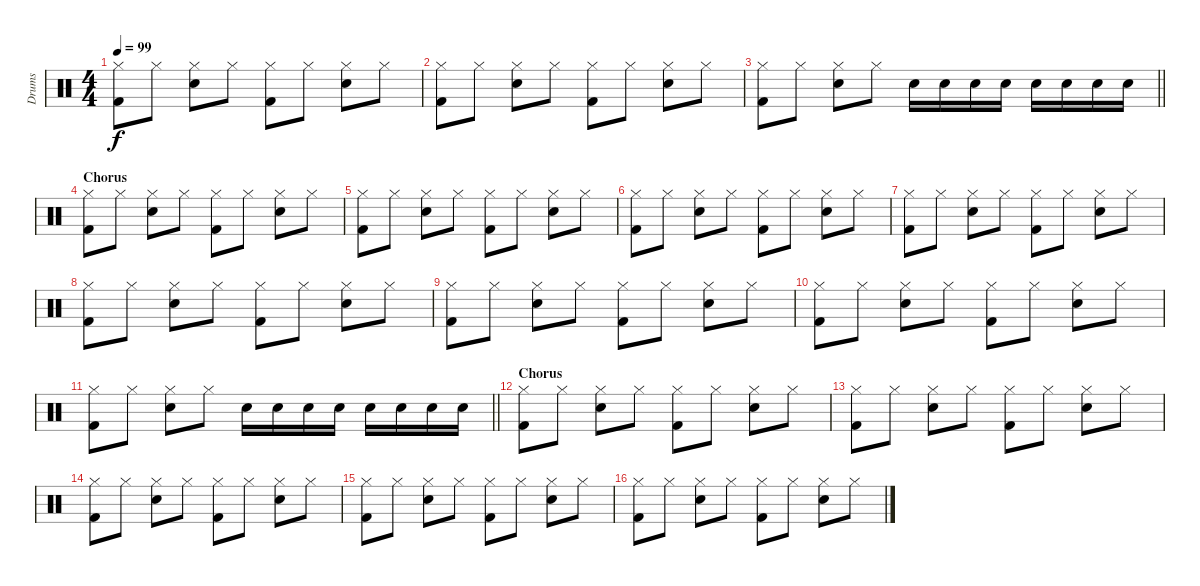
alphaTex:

\track ("Drums" "Drums") {instrument percussion}
\staff {score}
\articulation defaults
\ts (4 4)
\tempo 99
\clef neutral
\ks c
("Hi-Hat (closed)" "Kick (hit) 2").8{dy f} "Hi-Hat (closed)".8 ("Hi-Hat (closed)" "Snare (hit) 2").8 "Hi-Hat (closed)".8 ("Hi-Hat (closed)" "Kick (hit) 2").8 "Hi-Hat (closed)".8 ("Hi-Hat (closed)" "Snare (hit) 2").8 "Hi-Hat (closed)".8 |
("Hi-Hat (closed)" "Kick (hit) 2").8 "Hi-Hat (closed)".8 ("Hi-Hat (closed)" "Snare (hit) 2").8 "Hi-Hat (closed)".8 ("Hi-Hat (closed)" "Kick (hit) 2").8 "Hi-Hat (closed)".8 ("Hi-Hat (closed)" "Snare (hit) 2").8 "Hi-Hat (closed)".8 |
\barLineRight lightlight
("Hi-Hat (closed)" "Kick (hit) 2").8 "Hi-Hat (closed)".8 ("Hi-Hat (closed)" "Snare (hit) 2").8 "Hi-Hat (closed)".8 "Snare (hit) 2".16 "Snare (hit) 2".16 "Snare (hit) 2".16 "Snare (hit) 2".16 "Snare (hit) 2".16 "Snare (hit) 2".16 "Snare (hit) 2".16 "Snare (hit) 2".16 |
\section ("" "Chorus")
("Hi-Hat (closed)" "Kick (hit) 2").8 "Hi-Hat (closed)".8 ("Hi-Hat (closed)" "Snare (hit) 2").8 "Hi-Hat (closed)".8 ("Hi-Hat (closed)" "Kick (hit) 2").8 "Hi-Hat (closed)".8 ("Hi-Hat (closed)" "Snare (hit) 2").8 "Hi-Hat (closed)".8 |
("Hi-Hat (closed)" "Kick (hit) 2").8 "Hi-Hat (closed)".8 ("Hi-Hat (closed)" "Snare (hit) 2").8 "Hi-Hat (closed)".8 ("Hi-Hat (closed)" "Kick (hit) 2").8 "Hi-Hat (closed)".8 ("Hi-Hat (closed)" "Snare (hit) 2").8 "Hi-Hat (closed)".8 |
("Hi-Hat (closed)" "Kick (hit) 2").8 "Hi-Hat (closed)".8 ("Hi-Hat (closed)" "Snare (hit) 2").8 "Hi-Hat (closed)".8 ("Hi-Hat (closed)" "Kick (hit) 2").8 "Hi-Hat (closed)".8 ("Hi-Hat (closed)" "Snare (hit) 2").8 "Hi-Hat (closed)".8 |
("Hi-Hat (closed)" "Kick (hit) 2").8 "Hi-Hat (closed)".8 ("Hi-Hat (closed)" "Snare (hit) 2").8 "Hi-Hat (closed)".8 ("Hi-Hat (closed)" "Kick (hit) 2").8 "Hi-Hat (closed)".8 ("Hi-Hat (closed)" "Snare (hit) 2").8 "Hi-Hat (closed)".8 |
("Hi-Hat (closed)" "Kick (hit) 2").8 "Hi-Hat (closed)".8 ("Hi-Hat (closed)" "Snare (hit) 2").8 "Hi-Hat (closed)".8 ("Hi-Hat (closed)" "Kick (hit) 2").8 "Hi-Hat (closed)".8 ("Hi-Hat (closed)" "Snare (hit) 2").8 "Hi-Hat (closed)".8 |
("Hi-Hat (closed)" "Kick (hit) 2").8 "Hi-Hat (closed)".8 ("Hi-Hat (closed)" "Snare (hit) 2").8 "Hi-Hat (closed)".8 ("Hi-Hat (closed)" "Kick (hit) 2").8 "Hi-Hat (closed)".8 ("Hi-Hat (closed)" "Snare (hit) 2").8 "Hi-Hat (closed)".8 |
("Hi-Hat (closed)" "Kick (hit) 2").8 "Hi-Hat (closed)".8 ("Hi-Hat (closed)" "Snare (hit) 2").8 "Hi-Hat (closed)".8 ("Hi-Hat (closed)" "Kick (hit) 2").8 "Hi-Hat (closed)".8 ("Hi-Hat (closed)" "Snare (hit) 2").8 "Hi-Hat (closed)".8 |
\barLineRight lightlight
("Hi-Hat (closed)" "Kick (hit) 2").8 "Hi-Hat (closed)".8 ("Hi-Hat (closed)" "Snare (hit) 2").8 "Hi-Hat (closed)".8 "Snare (hit) 2".16 "Snare (hit) 2".16 "Snare (hit) 2".16 "Snare (hit) 2".16 "Snare (hit) 2".16 "Snare (hit) 2".16 "Snare (hit) 2".16 "Snare (hit) 2".16 |
\section ("" "Chorus")
("Hi-Hat (closed)" "Kick (hit) 2").8 "Hi-Hat (closed)".8 ("Hi-Hat (closed)" "Snare (hit) 2").8 "Hi-Hat (closed)".8 ("Hi-Hat (closed)" "Kick (hit) 2").8 "Hi-Hat (closed)".8 ("Hi-Hat (closed)" "Snare (hit) 2").8 "Hi-Hat (closed)".8 |
("Hi-Hat (closed)" "Kick (hit) 2").8 "Hi-Hat (closed)".8 ("Hi-Hat (closed)" "Snare (hit) 2").8 "Hi-Hat (closed)".8 ("Hi-Hat (closed)" "Kick (hit) 2").8 "Hi-Hat (closed)".8 ("Hi-Hat (closed)" "Snare (hit) 2").8 "Hi-Hat (closed)".8 |
("Hi-Hat (closed)" "Kick (hit) 2").8 "Hi-Hat (closed)".8 ("Hi-Hat (closed)" "Snare (hit) 2").8 "Hi-Hat (closed)".8 ("Hi-Hat (closed)" "Kick (hit) 2").8 "Hi-Hat (closed)".8 ("Hi-Hat (closed)" "Snare (hit) 2").8 "Hi-Hat (closed)".8 |
("Hi-Hat (closed)" "Kick (hit) 2").8 "Hi-Hat (closed)".8 ("Hi-Hat (closed)" "Snare (hit) 2").8 "Hi-Hat (closed)".8 ("Hi-Hat (closed)" "Kick (hit) 2").8 "Hi-Hat (closed)".8 ("Hi-Hat (closed)" "Snare (hit) 2").8 "Hi-Hat (closed)".8 |
("Hi-Hat (closed)" "Kick (hit) 2").8 "Hi-Hat (closed)".8 ("Hi-Hat (closed)" "Snare (hit) 2").8 "Hi-Hat (closed)".8 ("Hi-Hat (closed)" "Kick (hit) 2").8 "Hi-Hat (closed)".8 ("Hi-Hat (closed)" "Snare (hit) 2").8 "Hi-Hat (closed)".8
